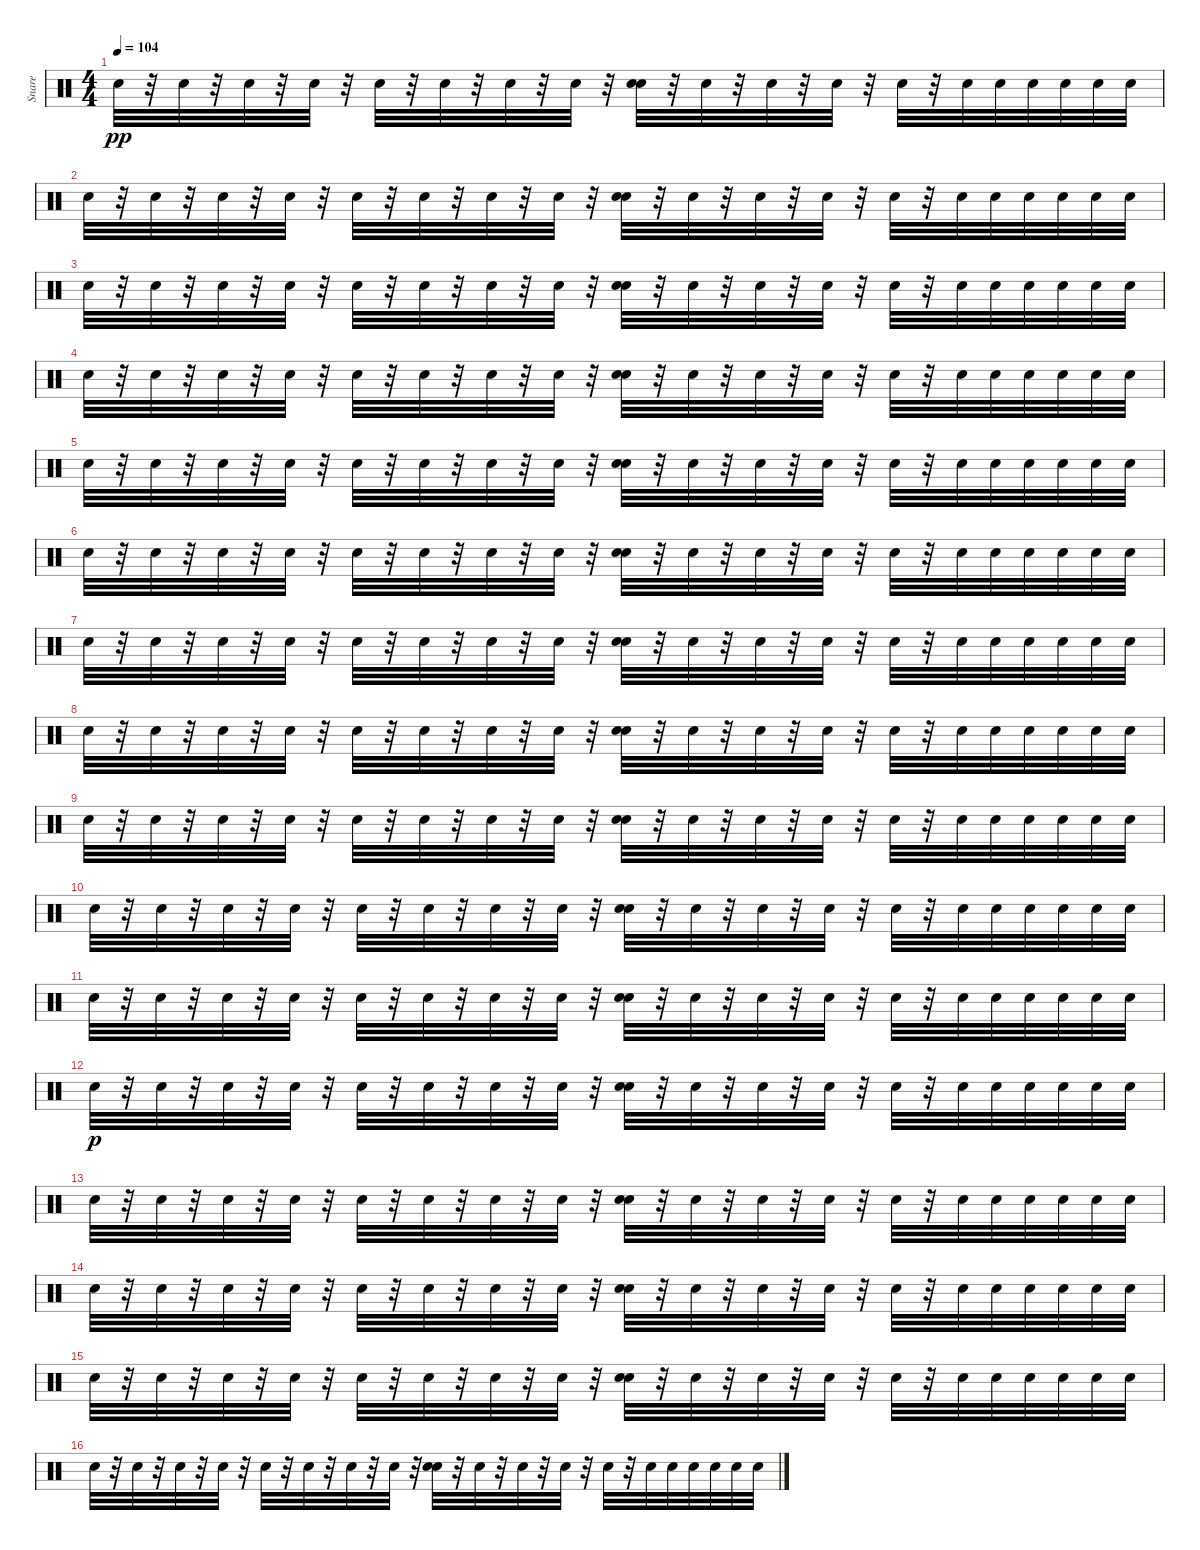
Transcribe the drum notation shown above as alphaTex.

\track ("Snare" "Snare") {instrument percussion}
\staff {score}
\articulation defaults
\ts (4 4)
\tempo 104
\clef neutral
\ks c "Snare (hit) 2".32{dy pp}
r.32 "Snare (hit) 2".32 r.32 "Snare (hit) 2".32 r.32 "Snare (hit) 2".32 r.32 "Snare (hit) 2".32 r.32 "Snare (hit) 2".32 r.32 "Snare (hit) 2".32 r.32 "Snare (hit) 2".32 r.32 ("Snare (hit) 2" "Snare (hit) 2").32 r.32 "Snare (hit) 2".32 r.32 "Snare (hit) 2".32 r.32 "Snare (hit) 2".32 r.32 "Snare (hit) 2".32 r.32 "Snare (hit) 2".32 "Snare (hit) 2".32 "Snare (hit) 2".32 "Snare (hit) 2".32 "Snare (hit) 2".32 "Snare (hit) 2".32 |
"Snare (hit) 2".32 r.32 "Snare (hit) 2".32 r.32 "Snare (hit) 2".32 r.32 "Snare (hit) 2".32 r.32 "Snare (hit) 2".32 r.32 "Snare (hit) 2".32 r.32 "Snare (hit) 2".32 r.32 "Snare (hit) 2".32 r.32 ("Snare (hit) 2" "Snare (hit) 2").32 r.32 "Snare (hit) 2".32 r.32 "Snare (hit) 2".32 r.32 "Snare (hit) 2".32 r.32 "Snare (hit) 2".32 r.32 "Snare (hit) 2".32 "Snare (hit) 2".32 "Snare (hit) 2".32 "Snare (hit) 2".32 "Snare (hit) 2".32 "Snare (hit) 2".32 |
"Snare (hit) 2".32 r.32 "Snare (hit) 2".32 r.32 "Snare (hit) 2".32 r.32 "Snare (hit) 2".32 r.32 "Snare (hit) 2".32 r.32 "Snare (hit) 2".32 r.32 "Snare (hit) 2".32 r.32 "Snare (hit) 2".32 r.32 ("Snare (hit) 2" "Snare (hit) 2").32 r.32 "Snare (hit) 2".32 r.32 "Snare (hit) 2".32 r.32 "Snare (hit) 2".32 r.32 "Snare (hit) 2".32 r.32 "Snare (hit) 2".32 "Snare (hit) 2".32 "Snare (hit) 2".32 "Snare (hit) 2".32 "Snare (hit) 2".32 "Snare (hit) 2".32 |
"Snare (hit) 2".32 r.32 "Snare (hit) 2".32 r.32 "Snare (hit) 2".32 r.32 "Snare (hit) 2".32 r.32 "Snare (hit) 2".32 r.32 "Snare (hit) 2".32 r.32 "Snare (hit) 2".32 r.32 "Snare (hit) 2".32 r.32 ("Snare (hit) 2" "Snare (hit) 2").32 r.32 "Snare (hit) 2".32 r.32 "Snare (hit) 2".32 r.32 "Snare (hit) 2".32 r.32 "Snare (hit) 2".32 r.32 "Snare (hit) 2".32 "Snare (hit) 2".32 "Snare (hit) 2".32 "Snare (hit) 2".32 "Snare (hit) 2".32 "Snare (hit) 2".32 |
"Snare (hit) 2".32 r.32 "Snare (hit) 2".32 r.32 "Snare (hit) 2".32 r.32 "Snare (hit) 2".32 r.32 "Snare (hit) 2".32 r.32 "Snare (hit) 2".32 r.32 "Snare (hit) 2".32 r.32 "Snare (hit) 2".32 r.32 ("Snare (hit) 2" "Snare (hit) 2").32 r.32 "Snare (hit) 2".32 r.32 "Snare (hit) 2".32 r.32 "Snare (hit) 2".32 r.32 "Snare (hit) 2".32 r.32 "Snare (hit) 2".32 "Snare (hit) 2".32 "Snare (hit) 2".32 "Snare (hit) 2".32 "Snare (hit) 2".32 "Snare (hit) 2".32 |
"Snare (hit) 2".32 r.32 "Snare (hit) 2".32 r.32 "Snare (hit) 2".32 r.32 "Snare (hit) 2".32 r.32 "Snare (hit) 2".32 r.32 "Snare (hit) 2".32 r.32 "Snare (hit) 2".32 r.32 "Snare (hit) 2".32 r.32 ("Snare (hit) 2" "Snare (hit) 2").32 r.32 "Snare (hit) 2".32 r.32 "Snare (hit) 2".32 r.32 "Snare (hit) 2".32 r.32 "Snare (hit) 2".32 r.32 "Snare (hit) 2".32 "Snare (hit) 2".32 "Snare (hit) 2".32 "Snare (hit) 2".32 "Snare (hit) 2".32 "Snare (hit) 2".32 |
"Snare (hit) 2".32 r.32 "Snare (hit) 2".32 r.32 "Snare (hit) 2".32 r.32 "Snare (hit) 2".32 r.32 "Snare (hit) 2".32 r.32 "Snare (hit) 2".32 r.32 "Snare (hit) 2".32 r.32 "Snare (hit) 2".32 r.32 ("Snare (hit) 2" "Snare (hit) 2").32 r.32 "Snare (hit) 2".32 r.32 "Snare (hit) 2".32 r.32 "Snare (hit) 2".32 r.32 "Snare (hit) 2".32 r.32 "Snare (hit) 2".32 "Snare (hit) 2".32 "Snare (hit) 2".32 "Snare (hit) 2".32 "Snare (hit) 2".32 "Snare (hit) 2".32 |
"Snare (hit) 2".32 r.32 "Snare (hit) 2".32 r.32 "Snare (hit) 2".32 r.32 "Snare (hit) 2".32 r.32 "Snare (hit) 2".32 r.32 "Snare (hit) 2".32 r.32 "Snare (hit) 2".32 r.32 "Snare (hit) 2".32 r.32 ("Snare (hit) 2" "Snare (hit) 2").32 r.32 "Snare (hit) 2".32 r.32 "Snare (hit) 2".32 r.32 "Snare (hit) 2".32 r.32 "Snare (hit) 2".32 r.32 "Snare (hit) 2".32 "Snare (hit) 2".32 "Snare (hit) 2".32 "Snare (hit) 2".32 "Snare (hit) 2".32 "Snare (hit) 2".32 |
"Snare (hit) 2".32 r.32 "Snare (hit) 2".32 r.32 "Snare (hit) 2".32 r.32 "Snare (hit) 2".32 r.32 "Snare (hit) 2".32 r.32 "Snare (hit) 2".32 r.32 "Snare (hit) 2".32 r.32 "Snare (hit) 2".32 r.32 ("Snare (hit) 2" "Snare (hit) 2").32 r.32 "Snare (hit) 2".32 r.32 "Snare (hit) 2".32 r.32 "Snare (hit) 2".32 r.32 "Snare (hit) 2".32 r.32 "Snare (hit) 2".32 "Snare (hit) 2".32 "Snare (hit) 2".32 "Snare (hit) 2".32 "Snare (hit) 2".32 "Snare (hit) 2".32 |
"Snare (hit) 2".32 r.32 "Snare (hit) 2".32 r.32 "Snare (hit) 2".32 r.32 "Snare (hit) 2".32 r.32 "Snare (hit) 2".32 r.32 "Snare (hit) 2".32 r.32 "Snare (hit) 2".32 r.32 "Snare (hit) 2".32 r.32 ("Snare (hit) 2" "Snare (hit) 2").32 r.32 "Snare (hit) 2".32 r.32 "Snare (hit) 2".32 r.32 "Snare (hit) 2".32 r.32 "Snare (hit) 2".32 r.32 "Snare (hit) 2".32 "Snare (hit) 2".32 "Snare (hit) 2".32 "Snare (hit) 2".32 "Snare (hit) 2".32 "Snare (hit) 2".32 |
"Snare (hit) 2".32 r.32 "Snare (hit) 2".32 r.32 "Snare (hit) 2".32 r.32 "Snare (hit) 2".32 r.32 "Snare (hit) 2".32 r.32 "Snare (hit) 2".32 r.32 "Snare (hit) 2".32 r.32 "Snare (hit) 2".32 r.32 ("Snare (hit) 2" "Snare (hit) 2").32 r.32 "Snare (hit) 2".32 r.32 "Snare (hit) 2".32 r.32 "Snare (hit) 2".32 r.32 "Snare (hit) 2".32 r.32 "Snare (hit) 2".32 "Snare (hit) 2".32 "Snare (hit) 2".32 "Snare (hit) 2".32 "Snare (hit) 2".32 "Snare (hit) 2".32 |
"Snare (hit) 2".32{dy p} r.32 "Snare (hit) 2".32 r.32 "Snare (hit) 2".32 r.32 "Snare (hit) 2".32 r.32 "Snare (hit) 2".32 r.32 "Snare (hit) 2".32 r.32 "Snare (hit) 2".32 r.32 "Snare (hit) 2".32 r.32 ("Snare (hit) 2" "Snare (hit) 2").32 r.32 "Snare (hit) 2".32 r.32 "Snare (hit) 2".32 r.32 "Snare (hit) 2".32 r.32 "Snare (hit) 2".32 r.32 "Snare (hit) 2".32 "Snare (hit) 2".32 "Snare (hit) 2".32 "Snare (hit) 2".32 "Snare (hit) 2".32 "Snare (hit) 2".32 |
"Snare (hit) 2".32 r.32 "Snare (hit) 2".32 r.32 "Snare (hit) 2".32 r.32 "Snare (hit) 2".32 r.32 "Snare (hit) 2".32 r.32 "Snare (hit) 2".32 r.32 "Snare (hit) 2".32 r.32 "Snare (hit) 2".32 r.32 ("Snare (hit) 2" "Snare (hit) 2").32 r.32 "Snare (hit) 2".32 r.32 "Snare (hit) 2".32 r.32 "Snare (hit) 2".32 r.32 "Snare (hit) 2".32 r.32 "Snare (hit) 2".32 "Snare (hit) 2".32 "Snare (hit) 2".32 "Snare (hit) 2".32 "Snare (hit) 2".32 "Snare (hit) 2".32 |
"Snare (hit) 2".32 r.32 "Snare (hit) 2".32 r.32 "Snare (hit) 2".32 r.32 "Snare (hit) 2".32 r.32 "Snare (hit) 2".32 r.32 "Snare (hit) 2".32 r.32 "Snare (hit) 2".32 r.32 "Snare (hit) 2".32 r.32 ("Snare (hit) 2" "Snare (hit) 2").32 r.32 "Snare (hit) 2".32 r.32 "Snare (hit) 2".32 r.32 "Snare (hit) 2".32 r.32 "Snare (hit) 2".32 r.32 "Snare (hit) 2".32 "Snare (hit) 2".32 "Snare (hit) 2".32 "Snare (hit) 2".32 "Snare (hit) 2".32 "Snare (hit) 2".32 |
"Snare (hit) 2".32 r.32 "Snare (hit) 2".32 r.32 "Snare (hit) 2".32 r.32 "Snare (hit) 2".32 r.32 "Snare (hit) 2".32 r.32 "Snare (hit) 2".32 r.32 "Snare (hit) 2".32 r.32 "Snare (hit) 2".32 r.32 ("Snare (hit) 2" "Snare (hit) 2").32 r.32 "Snare (hit) 2".32 r.32 "Snare (hit) 2".32 r.32 "Snare (hit) 2".32 r.32 "Snare (hit) 2".32 r.32 "Snare (hit) 2".32 "Snare (hit) 2".32 "Snare (hit) 2".32 "Snare (hit) 2".32 "Snare (hit) 2".32 "Snare (hit) 2".32 |
"Snare (hit) 2".32 r.32 "Snare (hit) 2".32 r.32 "Snare (hit) 2".32 r.32 "Snare (hit) 2".32 r.32 "Snare (hit) 2".32 r.32 "Snare (hit) 2".32 r.32 "Snare (hit) 2".32 r.32 "Snare (hit) 2".32 r.32 ("Snare (hit) 2" "Snare (hit) 2").32 r.32 "Snare (hit) 2".32 r.32 "Snare (hit) 2".32 r.32 "Snare (hit) 2".32 r.32 "Snare (hit) 2".32 r.32 "Snare (hit) 2".32 "Snare (hit) 2".32 "Snare (hit) 2".32 "Snare (hit) 2".32 "Snare (hit) 2".32 "Snare (hit) 2".32
